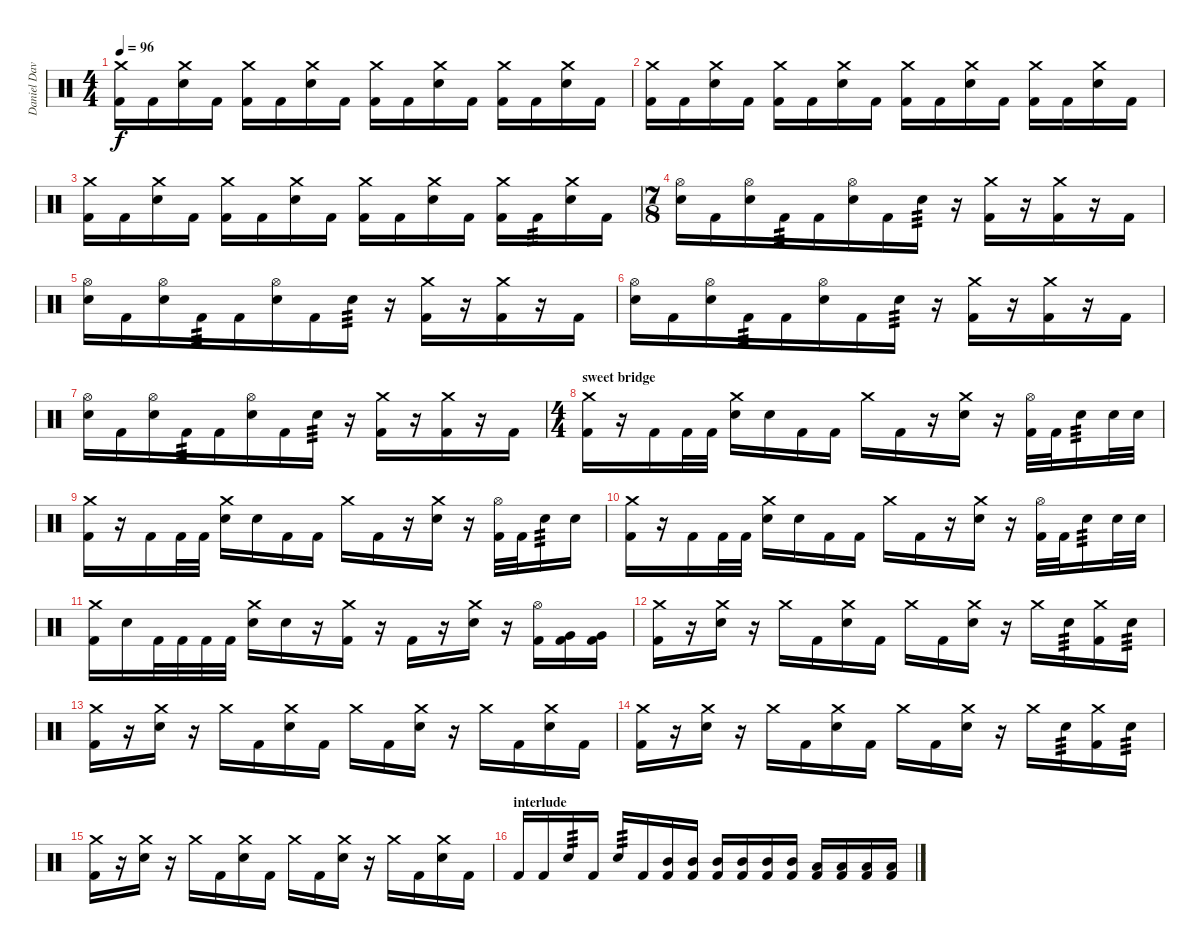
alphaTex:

\track ("Daniel Davison" "Daniel Dav") {instrument percussion}
\staff {score}
\articulation defaults
\ts (4 4)
\tempo 96
\clef neutral
\ks c
("Crash medium (hit)" "Kick (hit) 2").16{dy f} "Kick (hit) 2".16 ("Crash medium (hit)" "Electric Snare (hit)").16 "Kick (hit) 2".16 ("Crash medium (hit)" "Kick (hit) 2").16 "Kick (hit) 2".16 ("Crash medium (hit)" "Electric Snare (hit)").16 "Kick (hit) 2".16 ("Crash medium (hit)" "Kick (hit) 2").16 "Kick (hit) 2".16 ("Crash medium (hit)" "Electric Snare (hit)").16 "Kick (hit) 2".16 ("Crash medium (hit)" "Kick (hit) 2").16 "Kick (hit) 2".16 ("Crash medium (hit)" "Electric Snare (hit)").16 "Kick (hit) 2".16 |
("Crash medium (hit)" "Kick (hit) 2").16 "Kick (hit) 2".16 ("Crash medium (hit)" "Electric Snare (hit)").16 "Kick (hit) 2".16 ("Crash medium (hit)" "Kick (hit) 2").16 "Kick (hit) 2".16 ("Crash medium (hit)" "Electric Snare (hit)").16 "Kick (hit) 2".16 ("Crash medium (hit)" "Kick (hit) 2").16 "Kick (hit) 2".16 ("Crash medium (hit)" "Electric Snare (hit)").16 "Kick (hit) 2".16 ("Crash medium (hit)" "Kick (hit) 2").16 "Kick (hit) 2".16 ("Crash medium (hit)" "Electric Snare (hit)").16 "Kick (hit) 2".16 |
("Crash medium (hit)" "Kick (hit) 2").16 "Kick (hit) 2".16 ("Crash medium (hit)" "Electric Snare (hit)").16 "Kick (hit) 2".16 ("Crash medium (hit)" "Kick (hit) 2").16 "Kick (hit) 2".16 ("Crash medium (hit)" "Electric Snare (hit)").16 "Kick (hit) 2".16 ("Crash medium (hit)" "Kick (hit) 2").16 "Kick (hit) 2".16 ("Crash medium (hit)" "Electric Snare (hit)").16 "Kick (hit) 2".16 ("Crash medium (hit)" "Kick (hit) 2").16 "Kick (hit) 2".16{tp 3} ("Crash medium (hit)" "Electric Snare (hit)").16 "Kick (hit) 2".16 |
\ts (7 8)
("Hi-Hat (open)" "Electric Snare (hit)").16 "Kick (hit) 2".16 ("Hi-Hat (open)" "Electric Snare (hit)").16 "Kick (hit) 2".16{tp 3} "Kick (hit) 2".16 ("Hi-Hat (open)" "Electric Snare (hit)").16 "Kick (hit) 2".16 "Electric Snare (hit)".16{tp 3} r.16 ("Crash medium (hit)" "Kick (hit) 2").16 r.16 ("Crash medium (hit)" "Kick (hit) 2").16 r.16 "Kick (hit) 2".16 |
("Hi-Hat (open)" "Electric Snare (hit)").16 "Kick (hit) 2".16 ("Hi-Hat (open)" "Electric Snare (hit)").16 "Kick (hit) 2".16{tp 3} "Kick (hit) 2".16 ("Hi-Hat (open)" "Electric Snare (hit)").16 "Kick (hit) 2".16 "Electric Snare (hit)".16{tp 3} r.16 ("Crash medium (hit)" "Kick (hit) 2").16 r.16 ("Crash medium (hit)" "Kick (hit) 2").16 r.16 "Kick (hit) 2".16 |
("Hi-Hat (open)" "Electric Snare (hit)").16 "Kick (hit) 2".16 ("Hi-Hat (open)" "Electric Snare (hit)").16 "Kick (hit) 2".16{tp 3} "Kick (hit) 2".16 ("Hi-Hat (open)" "Electric Snare (hit)").16 "Kick (hit) 2".16 "Electric Snare (hit)".16{tp 3} r.16 ("Crash medium (hit)" "Kick (hit) 2").16 r.16 ("Crash medium (hit)" "Kick (hit) 2").16 r.16 "Kick (hit) 2".16 |
("Hi-Hat (open)" "Electric Snare (hit)").16 "Kick (hit) 2".16 ("Hi-Hat (open)" "Electric Snare (hit)").16 "Kick (hit) 2".16{tp 3} "Kick (hit) 2".16 ("Hi-Hat (open)" "Electric Snare (hit)").16 "Kick (hit) 2".16 "Electric Snare (hit)".16{tp 3} r.16 ("Crash medium (hit)" "Kick (hit) 2").16 r.16 ("Crash medium (hit)" "Kick (hit) 2").16 r.16 "Kick (hit) 2".16 |
\ts (4 4)
\section ("" "sweet bridge")
("Crash medium (hit)" "Kick (hit) 2").16 r.16 "Kick (hit) 2".16 "Kick (hit) 2".32 "Kick (hit) 2".32 ("Crash medium (hit)" "Electric Snare (hit)").16 "Electric Snare (hit)".16 "Kick (hit) 2".16 "Kick (hit) 2".16 "Crash medium (hit)".16 "Kick (hit) 2".16 r.16 ("Crash medium (hit)" "Electric Snare (hit)").16 r.16 ("Hi-Hat (open)" "Kick (hit) 2").32 "Kick (hit) 2".32 "Electric Snare (hit)".16{tp 3} "Electric Snare (hit)".32 "Electric Snare (hit)".32 |
("Crash medium (hit)" "Kick (hit) 2").16 r.16 "Kick (hit) 2".16 "Kick (hit) 2".32 "Kick (hit) 2".32 ("Crash medium (hit)" "Electric Snare (hit)").16 "Electric Snare (hit)".16 "Kick (hit) 2".16 "Kick (hit) 2".16 "Crash medium (hit)".16 "Kick (hit) 2".16 r.16 ("Crash medium (hit)" "Electric Snare (hit)").16 r.16 ("Hi-Hat (open)" "Kick (hit) 2").32 "Kick (hit) 2".32 "Electric Snare (hit)".16{tp 3} "Electric Snare (hit)".16 |
("Crash medium (hit)" "Kick (hit) 2").16 r.16 "Kick (hit) 2".16 "Kick (hit) 2".32 "Kick (hit) 2".32 ("Crash medium (hit)" "Electric Snare (hit)").16 "Electric Snare (hit)".16 "Kick (hit) 2".16 "Kick (hit) 2".16 "Crash medium (hit)".16 "Kick (hit) 2".16 r.16 ("Crash medium (hit)" "Electric Snare (hit)").16 r.16 ("Hi-Hat (open)" "Kick (hit) 2").32 "Kick (hit) 2".32 "Electric Snare (hit)".16{tp 3} "Electric Snare (hit)".32 "Electric Snare (hit)".32 |
("Crash medium (hit)" "Kick (hit) 2").16 "Electric Snare (hit)".16 "Kick (hit) 2".32 "Kick (hit) 2".32 "Kick (hit) 2".32 "Kick (hit) 2".32 ("Crash medium (hit)" "Electric Snare (hit)").16 "Electric Snare (hit)".16 r.16 ("Crash medium (hit)" "Kick (hit) 2").16 r.16 "Kick (hit) 2".16 r.16 ("Crash medium (hit)" "Electric Snare (hit)").16 r.16 ("Hi-Hat (open)" "Kick (hit) 2").16 ("Very Low Tom (hit)" "Kick (hit) 2").16 ("Very Low Tom (hit)" "Kick (hit) 2").16 |
("Crash medium (hit)" "Kick (hit) 2").16 r.16 ("Crash medium (hit)" "Electric Snare (hit)").16 r.16 "Crash medium (hit)".16 "Kick (hit) 2".16 ("Crash medium (hit)" "Electric Snare (hit)").16 "Kick (hit) 2".16 "Crash medium (hit)".16 "Kick (hit) 2".16 ("Crash medium (hit)" "Electric Snare (hit)").16 r.16 "Crash medium (hit)".16 "Electric Snare (hit)".16{tp 3} ("Crash medium (hit)" "Kick (hit) 2").16 "Electric Snare (hit)".16{tp 3} |
("Crash medium (hit)" "Kick (hit) 2").16 r.16 ("Crash medium (hit)" "Electric Snare (hit)").16 r.16 "Crash medium (hit)".16 "Kick (hit) 2".16 ("Crash medium (hit)" "Electric Snare (hit)").16 "Kick (hit) 2".16 "Crash medium (hit)".16 "Kick (hit) 2".16 ("Crash medium (hit)" "Electric Snare (hit)").16 r.16 "Crash medium (hit)".16 "Kick (hit) 2".16 ("Crash medium (hit)" "Electric Snare (hit)").16 "Kick (hit) 2".16 |
("Crash medium (hit)" "Kick (hit) 2").16 r.16 ("Crash medium (hit)" "Electric Snare (hit)").16 r.16 "Crash medium (hit)".16 "Kick (hit) 2".16 ("Crash medium (hit)" "Electric Snare (hit)").16 "Kick (hit) 2".16 "Crash medium (hit)".16 "Kick (hit) 2".16 ("Crash medium (hit)" "Electric Snare (hit)").16 r.16 "Crash medium (hit)".16 "Electric Snare (hit)".16{tp 3} ("Crash medium (hit)" "Kick (hit) 2").16 "Electric Snare (hit)".16{tp 3} |
("Crash medium (hit)" "Kick (hit) 2").16 r.16 ("Crash medium (hit)" "Electric Snare (hit)").16 r.16 "Crash medium (hit)".16 "Kick (hit) 2".16 ("Crash medium (hit)" "Electric Snare (hit)").16 "Kick (hit) 2".16 "Crash medium (hit)".16 "Kick (hit) 2".16 ("Crash medium (hit)" "Electric Snare (hit)").16 r.16 "Crash medium (hit)".16 "Kick (hit) 2".16 ("Crash medium (hit)" "Electric Snare (hit)").16 "Kick (hit) 2".16 |
\section ("" "interlude")
"Kick (hit) 2".16 "Kick (hit) 2".16 "Electric Snare (hit)".16{tp 3} "Kick (hit) 2".16 "Electric Snare (hit)".16{tp 3} "Kick (hit) 2".16 ("Mid Tom (hit)" "Kick (hit) 2").16 ("Mid Tom (hit)" "Kick (hit) 2").16 ("Mid Tom (hit)" "Kick (hit) 2").16 ("Mid Tom (hit)" "Kick (hit) 2").16 ("Mid Tom (hit)" "Kick (hit) 2").16 ("Mid Tom (hit)" "Kick (hit) 2").16 ("Low Tom (hit)" "Kick (hit) 2").16 ("Low Tom (hit)" "Kick (hit) 2").16 ("Low Tom (hit)" "Kick (hit) 2").16 ("Low Tom (hit)" "Kick (hit) 2").16
